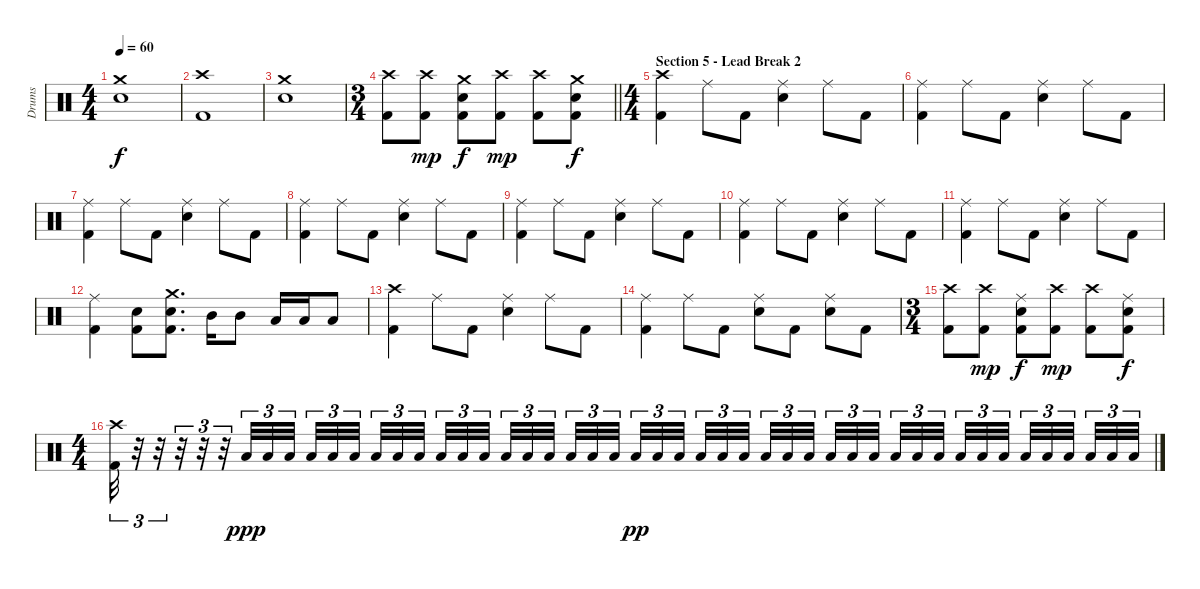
\track ("Drums" "Drums") {instrument percussion}
\staff {score}
\articulation defaults
\ts (4 4)
\tempo 60
\clef neutral
\ks c
("Crash medium (hit)" "Electric Snare (hit)").1{dy f} |
("Crash high (hit)" "Kick (hit) 2").1 |
("Crash medium (hit)" "Electric Snare (hit)").1 |
\ts (3 4)
\barLineRight lightlight
("Crash high (hit)" "Kick (hit) 2").8 ("Crash high (hit)" "Kick (hit) 2").8{dy mp} ("Crash medium (hit)" "Electric Snare (hit)" "Kick (hit) 2").8{dy f} ("Crash high (hit)" "Kick (hit) 2").8{dy mp} ("Crash high (hit)" "Kick (hit) 2").8 ("Crash medium (hit)" "Electric Snare (hit)" "Kick (hit) 2").8{dy f} |
\ts (4 4)
\section ("" "Section 5 - Lead Break 2")
("Crash high (hit)" "Kick (hit) 2").4 "Ride (middle)".8 "Kick (hit) 2".8 ("Ride (middle)" "Electric Snare (hit)").4 "Ride (middle)".8 "Kick (hit) 2".8 |
("Ride (middle)" "Kick (hit) 2").4 "Ride (middle)".8 "Kick (hit) 2".8 ("Ride (middle)" "Electric Snare (hit)").4 "Ride (middle)".8 "Kick (hit) 2".8 |
("Ride (middle)" "Kick (hit) 2").4 "Ride (middle)".8 "Kick (hit) 2".8 ("Ride (middle)" "Electric Snare (hit)").4 "Ride (middle)".8 "Kick (hit) 2".8 |
("Ride (middle)" "Kick (hit) 2").4 "Ride (middle)".8 "Kick (hit) 2".8 ("Ride (middle)" "Electric Snare (hit)").4 "Ride (middle)".8 "Kick (hit) 2".8 |
("Ride (middle)" "Kick (hit) 2").4 "Ride (middle)".8 "Kick (hit) 2".8 ("Ride (middle)" "Electric Snare (hit)").4 "Ride (middle)".8 "Kick (hit) 2".8 |
("Ride (middle)" "Kick (hit) 2").4 "Ride (middle)".8 "Kick (hit) 2".8 ("Ride (middle)" "Electric Snare (hit)").4 "Ride (middle)".8 "Kick (hit) 2".8 |
("Ride (middle)" "Kick (hit) 2").4 "Ride (middle)".8 "Kick (hit) 2".8 ("Ride (middle)" "Electric Snare (hit)").4 "Ride (middle)".8 "Kick (hit) 2".8 |
("Ride (middle)" "Kick (hit) 2").4 ("Electric Snare (hit)" "Kick (hit) 2").8 ("Crash medium (hit)" "Electric Snare (hit)" "Kick (hit) 2").8{d} "Mid Tom (hit)".16 "Mid Tom (hit)".8 "Low Tom (hit)".16 "Low Tom (hit)".16 "Low Tom (hit)".8 |
("Crash high (hit)" "Kick (hit) 2").4 "Ride (middle)".8 "Kick (hit) 2".8 ("Ride (middle)" "Electric Snare (hit)").4 "Ride (middle)".8 "Kick (hit) 2".8 |
("Ride (middle)" "Kick (hit) 2").4 "Ride (middle)".8 "Kick (hit) 2".8 ("Ride (middle)" "Electric Snare (hit)").8 "Kick (hit) 2".8 ("Ride (middle)" "Electric Snare (hit)").8 "Kick (hit) 2".8 |
\ts (3 4)
("Crash high (hit)" "Kick (hit) 2").8 ("Crash high (hit)" "Kick (hit) 2").8{dy mp} ("Ride (middle)" "Electric Snare (hit)" "Kick (hit) 2").8{dy f} ("Crash high (hit)" "Kick (hit) 2").8{dy mp} ("Crash high (hit)" "Kick (hit) 2").8 ("Ride (middle)" "Electric Snare (hit)" "Kick (hit) 2").8{dy f} |
\ts (4 4)
("Crash high (hit)" "Kick (hit) 2").32{tu (3 2)} r.32{tu (3 2)} r.32{tu (3 2) volume 12} r.32{tu (3 2)} r.32{tu (3 2)} r.32{tu (3 2)} "Low Floor Tom (hit)".32{tu (3 2) dy ppp volume 12} "Low Floor Tom (hit)".32{tu (3 2)} "Low Floor Tom (hit)".32{tu (3 2) beam splitsecondary} "Low Floor Tom (hit)".32{tu (3 2)} "Low Floor Tom (hit)".32{tu (3 2)} "Low Floor Tom (hit)".32{tu (3 2)} "Low Floor Tom (hit)".32{tu (3 2)} "Low Floor Tom (hit)".32{tu (3 2)} "Low Floor Tom (hit)".32{tu (3 2) beam splitsecondary} "Low Floor Tom (hit)".32{tu (3 2)} "Low Floor Tom (hit)".32{tu (3 2)} "Low Floor Tom (hit)".32{tu (3 2) beam splitsecondary} "Low Floor Tom (hit)".32{tu (3 2)} "Low Floor Tom (hit)".32{tu (3 2)} "Low Floor Tom (hit)".32{tu (3 2) beam splitsecondary} "Low Floor Tom (hit)".32{tu (3 2)} "Low Floor Tom (hit)".32{tu (3 2)} "Low Floor Tom (hit)".32{tu (3 2)} "Low Floor Tom (hit)".32{tu (3 2) dy pp} "Low Floor Tom (hit)".32{tu (3 2)} "Low Floor Tom (hit)".32{tu (3 2) beam splitsecondary} "Low Floor Tom (hit)".32{tu (3 2)} "Low Floor Tom (hit)".32{tu (3 2)} "Low Floor Tom (hit)".32{tu (3 2) beam splitsecondary} "Low Floor Tom (hit)".32{tu (3 2)} "Low Floor Tom (hit)".32{tu (3 2)} "Low Floor Tom (hit)".32{tu (3 2) beam splitsecondary} "Low Floor Tom (hit)".32{tu (3 2)} "Low Floor Tom (hit)".32{tu (3 2)} "Low Floor Tom (hit)".32{tu (3 2)} "Low Floor Tom (hit)".32{tu (3 2)} "Low Floor Tom (hit)".32{tu (3 2)} "Low Floor Tom (hit)".32{tu (3 2) beam splitsecondary} "Low Floor Tom (hit)".32{tu (3 2)} "Low Floor Tom (hit)".32{tu (3 2)} "Low Floor Tom (hit)".32{tu (3 2) beam splitsecondary} "Low Floor Tom (hit)".32{tu (3 2)} "Low Floor Tom (hit)".32{tu (3 2)} "Low Floor Tom (hit)".32{tu (3 2) beam splitsecondary} "Low Floor Tom (hit)".32{tu (3 2)} "Low Floor Tom (hit)".32{tu (3 2)} "Low Floor Tom (hit)".32{tu (3 2)}
